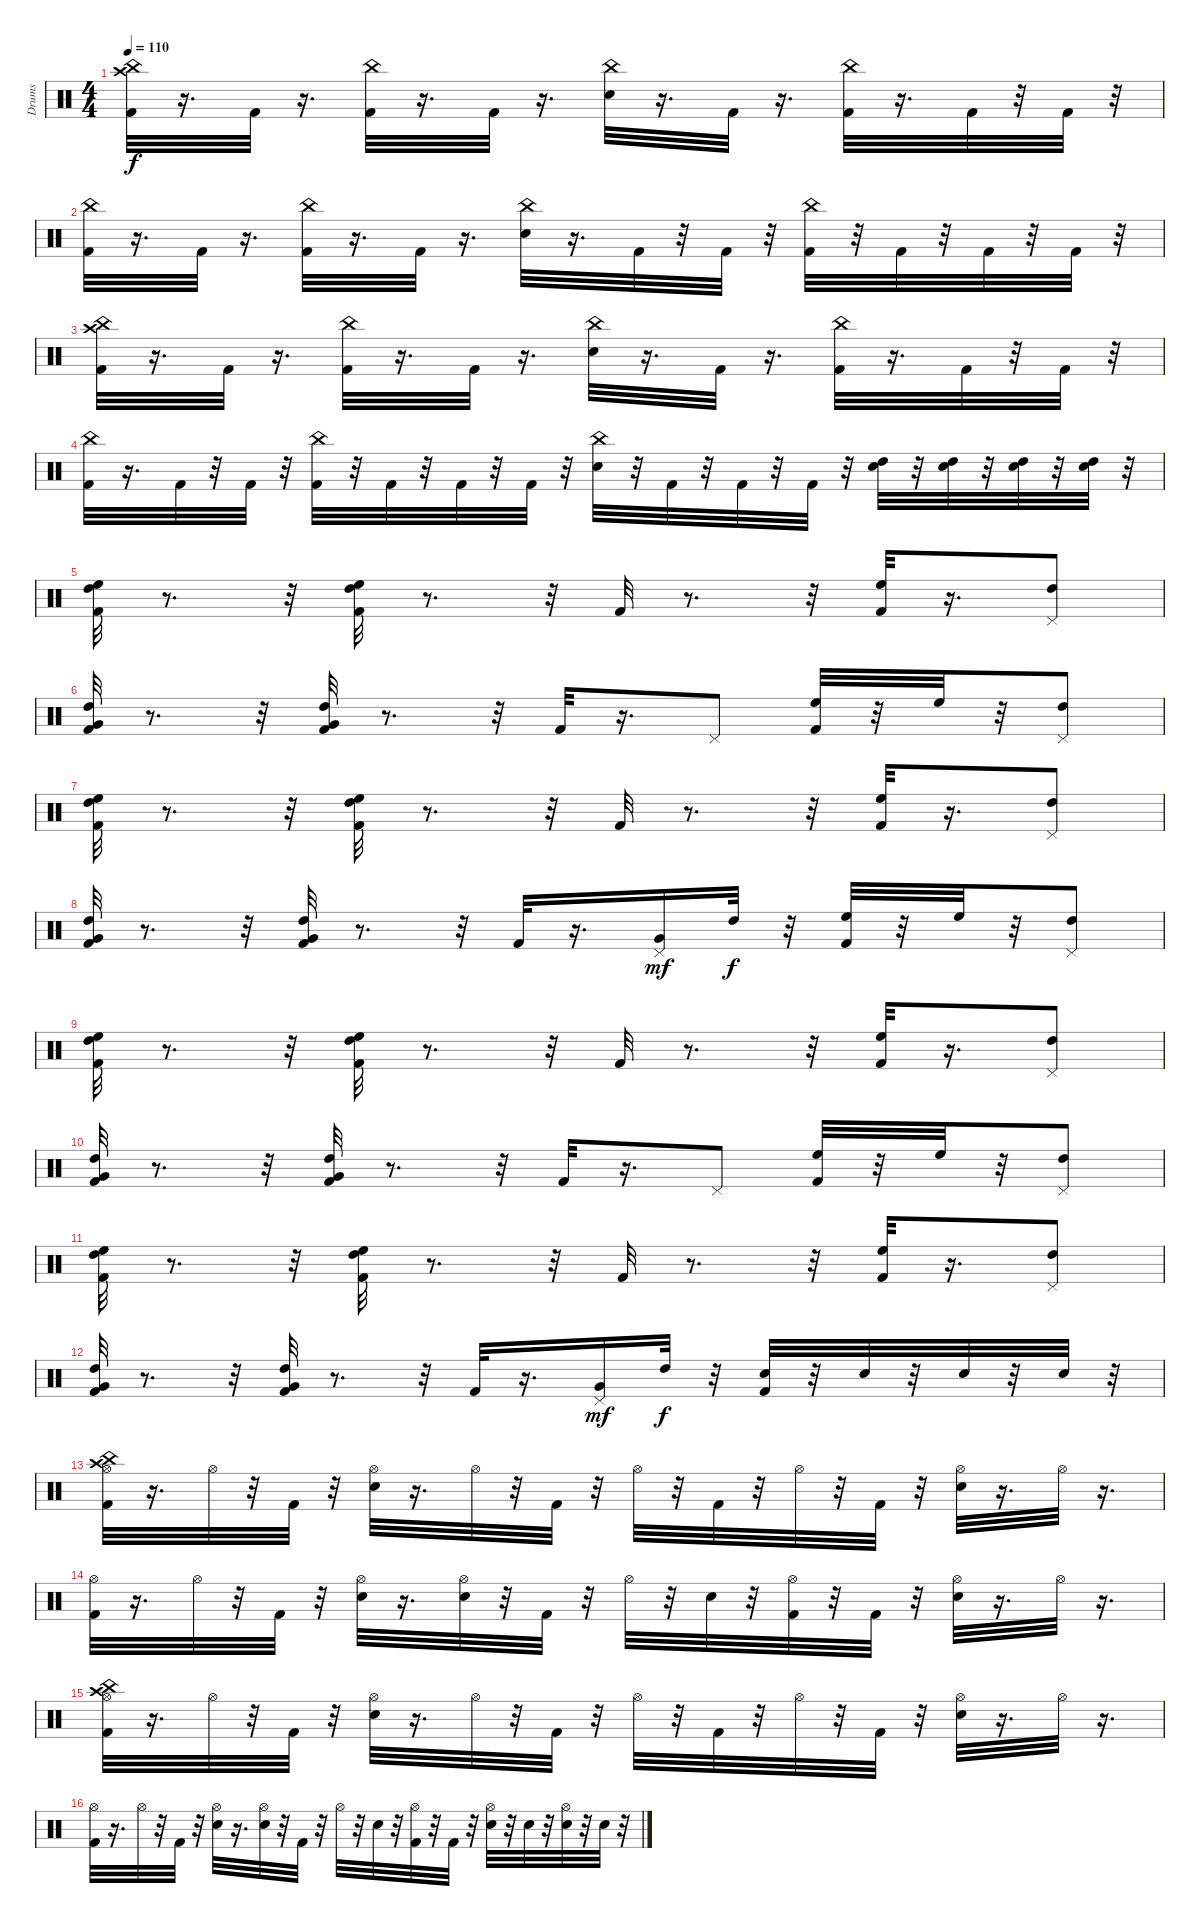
\track ("Drums" "Drums") {instrument percussion}
\staff {score}
\articulation defaults
\ts (4 4)
\tempo 110
\clef neutral
\ks c
("Kick (hit) 2" "Crash high (hit)" "China (hit)").32{dy f} r.16{d} "Kick (hit) 2".32 r.16{d} ("Kick (hit) 2" "China (hit)").32 r.16{d} "Kick (hit) 2".32 r.16{d} ("Snare (hit) 2" "China (hit)").32 r.16{d} "Kick (hit) 2".32 r.16{d} ("Kick (hit) 2" "China (hit)").32 r.16{d} "Kick (hit) 2".32 r.32 "Kick (hit) 2".32 r.32 |
("Kick (hit) 2" "China (hit)").32 r.16{d} "Kick (hit) 2".32 r.16{d} ("Kick (hit) 2" "China (hit)").32 r.16{d} "Kick (hit) 2".32 r.16{d} ("Snare (hit) 2" "China (hit)").32 r.16{d} "Kick (hit) 2".32 r.32 "Kick (hit) 2".32 r.32 ("Kick (hit) 2" "China (hit)").32 r.32 "Kick (hit) 2".32 r.32 "Kick (hit) 2".32 r.32 "Kick (hit) 2".32 r.32 |
("Kick (hit) 2" "Crash high (hit)" "China (hit)").32 r.16{d} "Kick (hit) 2".32 r.16{d} ("Kick (hit) 2" "China (hit)").32 r.16{d} "Kick (hit) 2".32 r.16{d} ("Snare (hit) 2" "China (hit)").32 r.16{d} "Kick (hit) 2".32 r.16{d} ("Kick (hit) 2" "China (hit)").32 r.16{d} "Kick (hit) 2".32 r.32 "Kick (hit) 2".32 r.32 |
("Kick (hit) 2" "China (hit)").32 r.16{d} "Kick (hit) 2".32 r.32 "Kick (hit) 2".32 r.32 ("Kick (hit) 2" "China (hit)").32 r.32 "Kick (hit) 2".32 r.32 "Kick (hit) 2".32 r.32 "Kick (hit) 2".32 r.32 ("Snare (hit) 2" "China (hit)").32 r.32 "Kick (hit) 2".32 r.32 "Kick (hit) 2".32 r.32 "Kick (hit) 2".32 r.32 ("Snare (hit) 2" "High Tom (hit)").32 r.32 ("Snare (hit) 2" "High Tom (hit)").32 r.32 ("Snare (hit) 2" "High Tom (hit)").32 r.32 ("Snare (hit) 2" "High Tom (hit)").32 r.32 |
("Kick (hit) 2" "High Tom (hit)" "High Floor Tom (hit)").32 r.8{d} r.32 ("Kick (hit) 2" "High Tom (hit)" "High Floor Tom (hit)").32 r.8{d} r.32 "Kick (hit) 2".32 r.8{d} r.32 ("Kick (hit) 2" "High Floor Tom (hit)").32 r.16{d} ("Pedal Hi-Hat (hit)" "High Tom (hit)").8 |
("Kick (hit) 2" "Very Low Tom (hit)" "High Tom (hit)").32 r.8{d} r.32 ("Kick (hit) 2" "Very Low Tom (hit)" "High Tom (hit)").32 r.8{d} r.32 "Kick (hit) 2".32 r.16{d} "Pedal Hi-Hat (hit)".8 ("Kick (hit) 2" "High Floor Tom (hit)").32 r.32 "High Floor Tom (hit)".32 r.32 ("Pedal Hi-Hat (hit)" "High Tom (hit)").8 |
("Kick (hit) 2" "High Tom (hit)" "High Floor Tom (hit)").32 r.8{d} r.32 ("Kick (hit) 2" "High Tom (hit)" "High Floor Tom (hit)").32 r.8{d} r.32 "Kick (hit) 2".32 r.8{d} r.32 ("Kick (hit) 2" "High Floor Tom (hit)").32 r.16{d} ("Pedal Hi-Hat (hit)" "High Tom (hit)").8 |
("Kick (hit) 2" "Very Low Tom (hit)" "High Tom (hit)").32 r.8{d} r.32 ("Kick (hit) 2" "Very Low Tom (hit)" "High Tom (hit)").32 r.8{d} r.32 "Kick (hit) 2".32 r.16{d} ("Very Low Tom (hit)" "Pedal Hi-Hat (hit)").16{dy mf} "High Tom (hit)".32{dy f} r.32 ("Kick (hit) 2" "High Floor Tom (hit)").32 r.32 "High Floor Tom (hit)".32 r.32 ("Pedal Hi-Hat (hit)" "High Tom (hit)").8 |
("Kick (hit) 2" "High Tom (hit)" "High Floor Tom (hit)").32 r.8{d} r.32 ("Kick (hit) 2" "High Tom (hit)" "High Floor Tom (hit)").32 r.8{d} r.32 "Kick (hit) 2".32 r.8{d} r.32 ("Kick (hit) 2" "High Floor Tom (hit)").32 r.16{d} ("Pedal Hi-Hat (hit)" "High Tom (hit)").8 |
("Kick (hit) 2" "Very Low Tom (hit)" "High Tom (hit)").32 r.8{d} r.32 ("Kick (hit) 2" "Very Low Tom (hit)" "High Tom (hit)").32 r.8{d} r.32 "Kick (hit) 2".32 r.16{d} "Pedal Hi-Hat (hit)".8 ("Kick (hit) 2" "High Floor Tom (hit)").32 r.32 "High Floor Tom (hit)".32 r.32 ("Pedal Hi-Hat (hit)" "High Tom (hit)").8 |
("Kick (hit) 2" "High Tom (hit)" "High Floor Tom (hit)").32 r.8{d} r.32 ("Kick (hit) 2" "High Tom (hit)" "High Floor Tom (hit)").32 r.8{d} r.32 "Kick (hit) 2".32 r.8{d} r.32 ("Kick (hit) 2" "High Floor Tom (hit)").32 r.16{d} ("Pedal Hi-Hat (hit)" "High Tom (hit)").8 |
("Kick (hit) 2" "Very Low Tom (hit)" "High Tom (hit)").32 r.8{d} r.32 ("Kick (hit) 2" "Very Low Tom (hit)" "High Tom (hit)").32 r.8{d} r.32 "Kick (hit) 2".32 r.16{d} ("Very Low Tom (hit)" "Pedal Hi-Hat (hit)").16{dy mf} "High Tom (hit)".32{dy f} r.32 ("Kick (hit) 2" "Snare (hit) 2").32 r.32 "Snare (hit) 2".32 r.32 "Snare (hit) 2".32 r.32 "Snare (hit) 2".32 r.32 |
("Kick (hit) 2" "Hi-Hat (open)" "Crash high (hit)" "China (hit)").32 r.16{d} "Hi-Hat (open)".32 r.32 "Kick (hit) 2".32 r.32 ("Snare (hit) 2" "Hi-Hat (open)").32 r.16{d} "Hi-Hat (open)".32 r.32 "Kick (hit) 2".32 r.32 "Hi-Hat (open)".32 r.32 "Kick (hit) 2".32 r.32 "Hi-Hat (open)".32 r.32 "Kick (hit) 2".32 r.32 ("Snare (hit) 2" "Hi-Hat (open)").32 r.16{d} "Hi-Hat (open)".32 r.16{d} |
("Kick (hit) 2" "Hi-Hat (open)").32 r.16{d} "Hi-Hat (open)".32 r.32 "Kick (hit) 2".32 r.32 ("Snare (hit) 2" "Hi-Hat (open)").32 r.16{d} ("Snare (hit) 2" "Hi-Hat (open)").32 r.32 "Kick (hit) 2".32 r.32 "Hi-Hat (open)".32 r.32 "Snare (hit) 2".32 r.32 ("Kick (hit) 2" "Hi-Hat (open)").32 r.32 "Kick (hit) 2".32 r.32 ("Snare (hit) 2" "Hi-Hat (open)").32 r.16{d} "Hi-Hat (open)".32 r.16{d} |
("Kick (hit) 2" "Hi-Hat (open)" "Crash high (hit)" "China (hit)").32 r.16{d} "Hi-Hat (open)".32 r.32 "Kick (hit) 2".32 r.32 ("Snare (hit) 2" "Hi-Hat (open)").32 r.16{d} "Hi-Hat (open)".32 r.32 "Kick (hit) 2".32 r.32 "Hi-Hat (open)".32 r.32 "Kick (hit) 2".32 r.32 "Hi-Hat (open)".32 r.32 "Kick (hit) 2".32 r.32 ("Snare (hit) 2" "Hi-Hat (open)").32 r.16{d} "Hi-Hat (open)".32 r.16{d} |
("Kick (hit) 2" "Hi-Hat (open)").32 r.16{d} "Hi-Hat (open)".32 r.32 "Kick (hit) 2".32 r.32 ("Snare (hit) 2" "Hi-Hat (open)").32 r.16{d} ("Snare (hit) 2" "Hi-Hat (open)").32 r.32 "Kick (hit) 2".32 r.32 "Hi-Hat (open)".32 r.32 "Snare (hit) 2".32 r.32 ("Kick (hit) 2" "Hi-Hat (open)").32 r.32 "Kick (hit) 2".32 r.32 ("Snare (hit) 2" "Hi-Hat (open)").32 r.32 "Snare (hit) 2".32 r.32 ("Snare (hit) 2" "Hi-Hat (open)").32 r.32 "Snare (hit) 2".32 r.32
